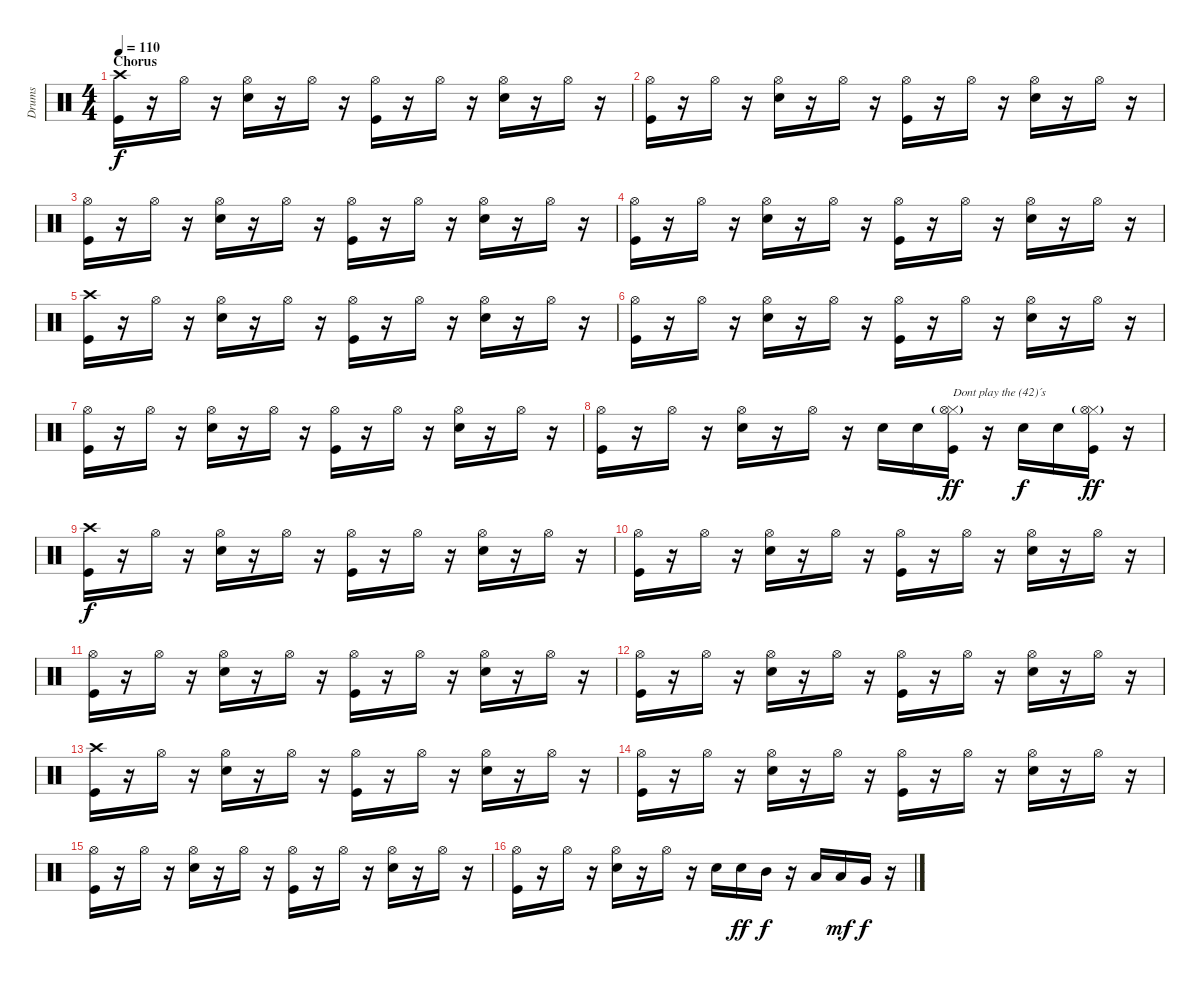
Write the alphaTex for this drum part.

\track ("Drums" "Drums") {instrument percussion}
\staff {score}
\articulation defaults
\ts (4 4)
\section ("" "Chorus")
\tempo 110
\clef neutral
\ks c
("Crash high (hit)" "Kick (hit)").16{dy f} r.16 "Hi-Hat (open)".16 r.16 ("Hi-Hat (open)" "Snare (hit) 2").16 r.16 "Hi-Hat (open)".16 r.16 ("Hi-Hat (open)" "Kick (hit)").16 r.16 "Hi-Hat (open)".16 r.16 ("Hi-Hat (open)" "Snare (hit) 2").16 r.16 "Hi-Hat (open)".16 r.16 |
("Hi-Hat (open)" "Kick (hit)").16 r.16 "Hi-Hat (open)".16 r.16 ("Hi-Hat (open)" "Snare (hit) 2").16 r.16 "Hi-Hat (open)".16 r.16 ("Hi-Hat (open)" "Kick (hit)").16 r.16 "Hi-Hat (open)".16 r.16 ("Hi-Hat (open)" "Snare (hit) 2").16 r.16 "Hi-Hat (open)".16 r.16 |
("Hi-Hat (open)" "Kick (hit)").16 r.16 "Hi-Hat (open)".16 r.16 ("Hi-Hat (open)" "Snare (hit) 2").16 r.16 "Hi-Hat (open)".16 r.16 ("Hi-Hat (open)" "Kick (hit)").16 r.16 "Hi-Hat (open)".16 r.16 ("Hi-Hat (open)" "Snare (hit) 2").16 r.16 "Hi-Hat (open)".16 r.16 |
("Hi-Hat (open)" "Kick (hit)").16 r.16 "Hi-Hat (open)".16 r.16 ("Hi-Hat (open)" "Snare (hit) 2").16 r.16 "Hi-Hat (open)".16 r.16 ("Hi-Hat (open)" "Kick (hit)").16 r.16 "Hi-Hat (open)".16 r.16 ("Hi-Hat (open)" "Snare (hit) 2").16 r.16 "Hi-Hat (open)".16 r.16 |
("Crash high (hit)" "Kick (hit)").16 r.16 "Hi-Hat (open)".16 r.16 ("Hi-Hat (open)" "Snare (hit) 2").16 r.16 "Hi-Hat (open)".16 r.16 ("Hi-Hat (open)" "Kick (hit)").16 r.16 "Hi-Hat (open)".16 r.16 ("Hi-Hat (open)" "Snare (hit) 2").16 r.16 "Hi-Hat (open)".16 r.16 |
("Hi-Hat (open)" "Kick (hit)").16 r.16 "Hi-Hat (open)".16 r.16 ("Hi-Hat (open)" "Snare (hit) 2").16 r.16 "Hi-Hat (open)".16 r.16 ("Hi-Hat (open)" "Kick (hit)").16 r.16 "Hi-Hat (open)".16 r.16 ("Hi-Hat (open)" "Snare (hit) 2").16 r.16 "Hi-Hat (open)".16 r.16 |
("Hi-Hat (open)" "Kick (hit)").16 r.16 "Hi-Hat (open)".16 r.16 ("Hi-Hat (open)" "Snare (hit) 2").16 r.16 "Hi-Hat (open)".16 r.16 ("Hi-Hat (open)" "Kick (hit)").16 r.16 "Hi-Hat (open)".16 r.16 ("Hi-Hat (open)" "Snare (hit) 2").16 r.16 "Hi-Hat (open)".16 r.16 |
("Hi-Hat (open)" "Kick (hit)").16 r.16 "Hi-Hat (open)".16 r.16 ("Hi-Hat (open)" "Snare (hit) 2").16 r.16 "Hi-Hat (open)".16 r.16 "Snare (hit) 2".16 "Snare (hit) 2".16 ("Hi-Hat (closed)"{g} "Hi-Hat (open)" "Kick (hit)").16{txt "Dont play the (42)´s" dy ff} r.16 "Snare (hit) 2".16{dy f} "Snare (hit) 2".16 ("Hi-Hat (closed)"{g} "Hi-Hat (open)" "Kick (hit)").16{dy ff} r.16 |
("Crash high (hit)" "Kick (hit)").16{dy f} r.16 "Hi-Hat (open)".16 r.16 ("Hi-Hat (open)" "Snare (hit) 2").16 r.16 "Hi-Hat (open)".16 r.16 ("Hi-Hat (open)" "Kick (hit)").16 r.16 "Hi-Hat (open)".16 r.16 ("Hi-Hat (open)" "Snare (hit) 2").16 r.16 "Hi-Hat (open)".16 r.16 |
("Hi-Hat (open)" "Kick (hit)").16 r.16 "Hi-Hat (open)".16 r.16 ("Hi-Hat (open)" "Snare (hit) 2").16 r.16 "Hi-Hat (open)".16 r.16 ("Hi-Hat (open)" "Kick (hit)").16 r.16 "Hi-Hat (open)".16 r.16 ("Hi-Hat (open)" "Snare (hit) 2").16 r.16 "Hi-Hat (open)".16 r.16 |
("Hi-Hat (open)" "Kick (hit)").16 r.16 "Hi-Hat (open)".16 r.16 ("Hi-Hat (open)" "Snare (hit) 2").16 r.16 "Hi-Hat (open)".16 r.16 ("Hi-Hat (open)" "Kick (hit)").16 r.16 "Hi-Hat (open)".16 r.16 ("Hi-Hat (open)" "Snare (hit) 2").16 r.16 "Hi-Hat (open)".16 r.16 |
("Hi-Hat (open)" "Kick (hit)").16 r.16 "Hi-Hat (open)".16 r.16 ("Hi-Hat (open)" "Snare (hit) 2").16 r.16 "Hi-Hat (open)".16 r.16 ("Hi-Hat (open)" "Kick (hit)").16 r.16 "Hi-Hat (open)".16 r.16 ("Hi-Hat (open)" "Snare (hit) 2").16 r.16 "Hi-Hat (open)".16 r.16 |
("Crash high (hit)" "Kick (hit)").16 r.16 "Hi-Hat (open)".16 r.16 ("Hi-Hat (open)" "Snare (hit) 2").16 r.16 "Hi-Hat (open)".16 r.16 ("Hi-Hat (open)" "Kick (hit)").16 r.16 "Hi-Hat (open)".16 r.16 ("Hi-Hat (open)" "Snare (hit) 2").16 r.16 "Hi-Hat (open)".16 r.16 |
("Hi-Hat (open)" "Kick (hit)").16 r.16 "Hi-Hat (open)".16 r.16 ("Hi-Hat (open)" "Snare (hit) 2").16 r.16 "Hi-Hat (open)".16 r.16 ("Hi-Hat (open)" "Kick (hit)").16 r.16 "Hi-Hat (open)".16 r.16 ("Hi-Hat (open)" "Snare (hit) 2").16 r.16 "Hi-Hat (open)".16 r.16 |
("Hi-Hat (open)" "Kick (hit)").16 r.16 "Hi-Hat (open)".16 r.16 ("Hi-Hat (open)" "Snare (hit) 2").16 r.16 "Hi-Hat (open)".16 r.16 ("Hi-Hat (open)" "Kick (hit)").16 r.16 "Hi-Hat (open)".16 r.16 ("Hi-Hat (open)" "Snare (hit) 2").16 r.16 "Hi-Hat (open)".16 r.16 |
("Hi-Hat (open)" "Kick (hit)").16 r.16 "Hi-Hat (open)".16 r.16 ("Hi-Hat (open)" "Snare (hit) 2").16 r.16 "Hi-Hat (open)".16 r.16 "Snare (hit) 2".16 "Snare (hit) 2".16{dy ff} "Mid Tom (hit)".16{dy f} r.16 "Low Tom (hit)".16 "Low Tom (hit)".16{dy mf} "Very Low Tom (hit)".16{dy f} r.16
